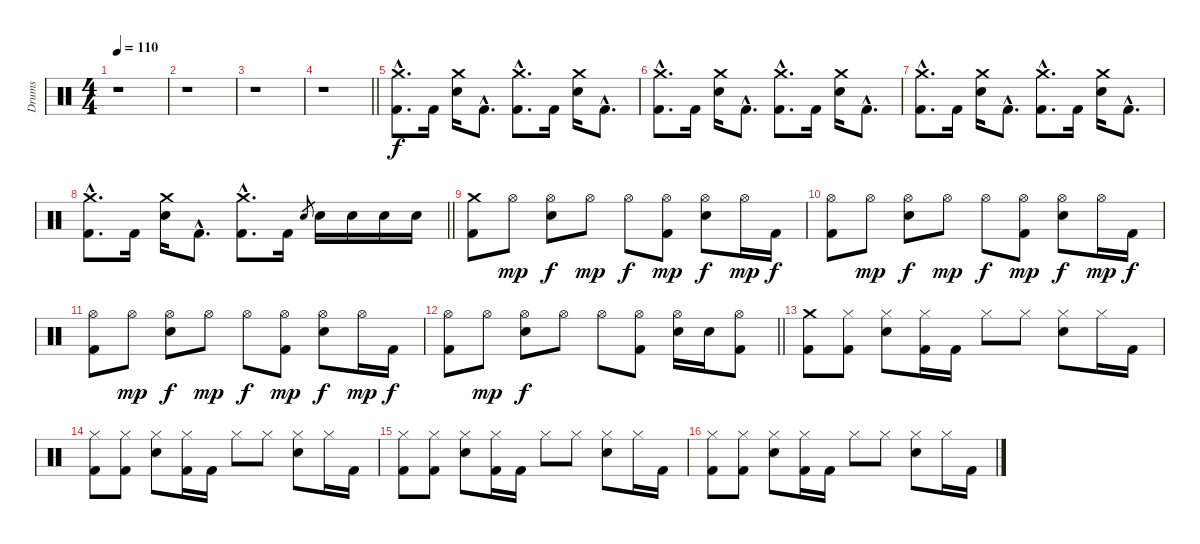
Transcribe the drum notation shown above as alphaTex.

\track ("Drums" "Drums") {instrument percussion}
\staff {score}
\articulation defaults
\ts (4 4)
\tempo 110
\clef neutral
\ks c
r.1{dy f} |
r.1 |
r.1 |
\barLineRight lightlight
r.1 |
("Crash medium (hit)"{hac} "Kick (hit) 2"{hac}).8{d} "Kick (hit) 2".16 ("Crash medium (hit)" "Snare (hit) 2").16 "Kick (hit) 2"{hac}.8{d} ("Crash medium (hit)"{hac} "Kick (hit) 2"{hac}).8{d} "Kick (hit) 2".16 ("Crash medium (hit)" "Snare (hit) 2").16 "Kick (hit) 2"{hac}.8{d} |
("Crash medium (hit)"{hac} "Kick (hit) 2"{hac}).8{d} "Kick (hit) 2".16 ("Crash medium (hit)" "Snare (hit) 2").16 "Kick (hit) 2"{hac}.8{d} ("Crash medium (hit)"{hac} "Kick (hit) 2"{hac}).8{d} "Kick (hit) 2".16 ("Crash medium (hit)" "Snare (hit) 2").16 "Kick (hit) 2"{hac}.8{d} |
("Crash medium (hit)"{hac} "Kick (hit) 2"{hac}).8{d} "Kick (hit) 2".16 ("Crash medium (hit)" "Snare (hit) 2").16 "Kick (hit) 2"{hac}.8{d} ("Crash medium (hit)"{hac} "Kick (hit) 2"{hac}).8{d} "Kick (hit) 2".16 ("Crash medium (hit)" "Snare (hit) 2").16 "Kick (hit) 2"{hac}.8{d} |
\barLineRight lightlight
("Crash medium (hit)"{hac} "Kick (hit) 2"{hac}).8{d} "Kick (hit) 2".16 ("Crash medium (hit)" "Snare (hit) 2").16 "Kick (hit) 2"{hac}.8{d} ("Crash medium (hit)"{hac} "Kick (hit) 2"{hac}).8{d} "Kick (hit) 2".16 "Electric Snare (hit)".8{gr} "Snare (hit) 2".16 "Snare (hit) 2".16 "Snare (hit) 2".16 "Snare (hit) 2".16 |
("Crash medium (hit)" "Kick (hit) 2").8 "Hi-Hat (open)".8{dy mp} ("Hi-Hat (open)" "Snare (hit) 2").8{dy f} "Hi-Hat (open)".8{dy mp} "Hi-Hat (open)".8{dy f} ("Hi-Hat (open)" "Kick (hit) 2").8{dy mp} ("Hi-Hat (open)" "Snare (hit) 2").8{dy f} "Hi-Hat (open)".16{dy mp} "Kick (hit) 2".16{dy f} |
("Hi-Hat (open)" "Kick (hit) 2").8 "Hi-Hat (open)".8{dy mp} ("Hi-Hat (open)" "Snare (hit) 2").8{dy f} "Hi-Hat (open)".8{dy mp} "Hi-Hat (open)".8{dy f} ("Hi-Hat (open)" "Kick (hit) 2").8{dy mp} ("Hi-Hat (open)" "Snare (hit) 2").8{dy f} "Hi-Hat (open)".16{dy mp} "Kick (hit) 2".16{dy f} |
("Hi-Hat (open)" "Kick (hit) 2").8 "Hi-Hat (open)".8{dy mp} ("Hi-Hat (open)" "Snare (hit) 2").8{dy f} "Hi-Hat (open)".8{dy mp} "Hi-Hat (open)".8{dy f} ("Hi-Hat (open)" "Kick (hit) 2").8{dy mp} ("Hi-Hat (open)" "Snare (hit) 2").8{dy f} "Hi-Hat (open)".16{dy mp} "Kick (hit) 2".16{dy f} |
\barLineRight lightlight
("Hi-Hat (open)" "Kick (hit) 2").8 "Hi-Hat (open)".8{dy mp} ("Hi-Hat (open)" "Snare (hit) 2").8{dy f} "Hi-Hat (open)".8 "Hi-Hat (open)".8 ("Hi-Hat (open)" "Kick (hit) 2").8 ("Hi-Hat (open)" "Snare (hit) 2").16 "Snare (hit) 2".16 ("Hi-Hat (open)" "Kick (hit) 2").8 |
("Crash medium (hit)" "Kick (hit) 2").8 ("Hi-Hat (closed)" "Kick (hit) 2").8 ("Hi-Hat (closed)" "Snare (hit) 2").8 ("Hi-Hat (closed)" "Kick (hit) 2").16 "Kick (hit) 2".16 "Hi-Hat (closed)".8 "Hi-Hat (closed)".8 ("Hi-Hat (closed)" "Snare (hit) 2").8 "Hi-Hat (closed)".16 "Kick (hit) 2".16 |
("Hi-Hat (closed)" "Kick (hit) 2").8 ("Hi-Hat (closed)" "Kick (hit) 2").8 ("Hi-Hat (closed)" "Snare (hit) 2").8 ("Hi-Hat (closed)" "Kick (hit) 2").16 "Kick (hit) 2".16 "Hi-Hat (closed)".8 "Hi-Hat (closed)".8 ("Hi-Hat (closed)" "Snare (hit) 2").8 "Hi-Hat (closed)".16 "Kick (hit) 2".16 |
("Hi-Hat (closed)" "Kick (hit) 2").8 ("Hi-Hat (closed)" "Kick (hit) 2").8 ("Hi-Hat (closed)" "Snare (hit) 2").8 ("Hi-Hat (closed)" "Kick (hit) 2").16 "Kick (hit) 2".16 "Hi-Hat (closed)".8 "Hi-Hat (closed)".8 ("Hi-Hat (closed)" "Snare (hit) 2").8 "Hi-Hat (closed)".16 "Kick (hit) 2".16 |
("Hi-Hat (closed)" "Kick (hit) 2").8 ("Hi-Hat (closed)" "Kick (hit) 2").8 ("Hi-Hat (closed)" "Snare (hit) 2").8 ("Hi-Hat (closed)" "Kick (hit) 2").16 "Kick (hit) 2".16 "Hi-Hat (closed)".8 "Hi-Hat (closed)".8 ("Hi-Hat (closed)" "Snare (hit) 2").8 "Hi-Hat (closed)".16 "Kick (hit) 2".16
